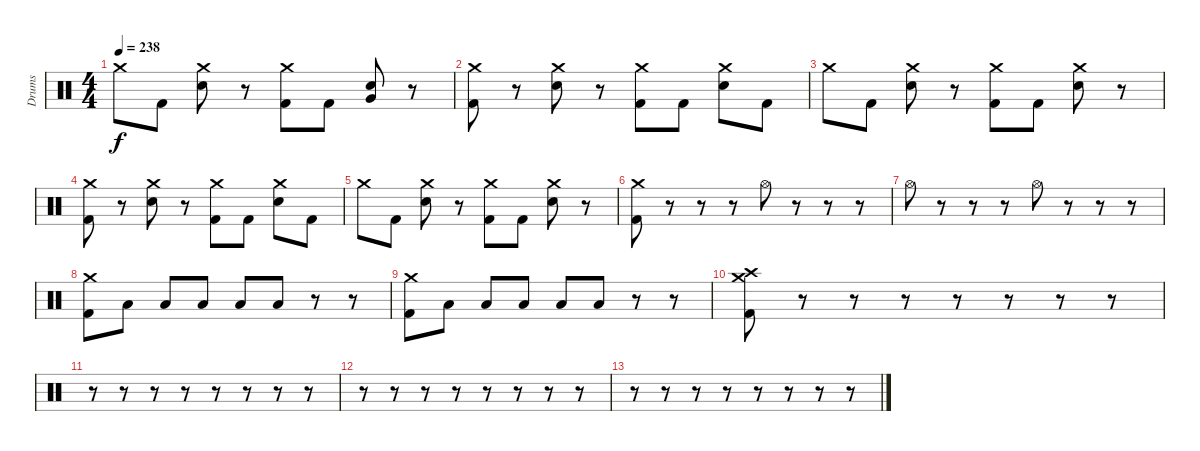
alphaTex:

\track ("Drums" "Drums") {instrument percussion}
\staff {score}
\articulation defaults
\ts (4 4)
\tempo 238
\clef neutral
\ks c "Crash medium (hit)".8{dy f} "Kick (hit) 2".8
("Crash medium (hit)" "Electric Snare (hit)").8 r.8 ("Crash medium (hit)" "Kick (hit) 2").8 "Kick (hit) 2".8 ("Very Low Tom (hit)" "Electric Snare (hit)").8 r.8 |
("Crash medium (hit)" "Kick (hit) 2").8 r.8 ("Crash medium (hit)" "Electric Snare (hit)").8 r.8 ("Crash medium (hit)" "Kick (hit) 2").8 "Kick (hit) 2".8 ("Crash medium (hit)" "Electric Snare (hit)").8 "Kick (hit) 2".8 |
"Crash medium (hit)".8 "Kick (hit) 2".8 ("Crash medium (hit)" "Electric Snare (hit)").8 r.8 ("Crash medium (hit)" "Kick (hit) 2").8 "Kick (hit) 2".8 ("Crash medium (hit)" "Electric Snare (hit)").8 r.8 |
("Crash medium (hit)" "Kick (hit) 2").8 r.8 ("Crash medium (hit)" "Electric Snare (hit)").8 r.8 ("Crash medium (hit)" "Kick (hit) 2").8 "Kick (hit) 2".8 ("Crash medium (hit)" "Electric Snare (hit)").8 "Kick (hit) 2".8 |
"Crash medium (hit)".8 "Kick (hit) 2".8 ("Crash medium (hit)" "Electric Snare (hit)").8 r.8 ("Crash medium (hit)" "Kick (hit) 2").8 "Kick (hit) 2".8 ("Crash medium (hit)" "Electric Snare (hit)").8 r.8 |
("Crash medium (hit)" "Kick (hit) 2").8 r.8 r.8 r.8 "Hi-Hat (open)".8 r.8 r.8 r.8 |
"Hi-Hat (open)".8 r.8 r.8 r.8 "Hi-Hat (open)".8 r.8 r.8 r.8 |
("Crash medium (hit)" "Kick (hit) 2").8 "Low Tom (hit)".8 "Low Tom (hit)".8 "Low Tom (hit)".8 "Low Tom (hit)".8 "Low Tom (hit)".8 r.8 r.8 |
("Crash medium (hit)" "Kick (hit) 2").8 "Low Tom (hit)".8 "Low Tom (hit)".8 "Low Tom (hit)".8 "Low Tom (hit)".8 "Low Tom (hit)".8 r.8 r.8 |
("Crash medium (hit)" "Crash high (hit)" "Kick (hit) 2").8 r.8 r.8 r.8 r.8 r.8 r.8 r.8 |
r.8 r.8 r.8 r.8 r.8 r.8 r.8 r.8 |
r.8 r.8 r.8 r.8 r.8 r.8 r.8 r.8 |
r.8 r.8 r.8 r.8 r.8 r.8 r.8 r.8
